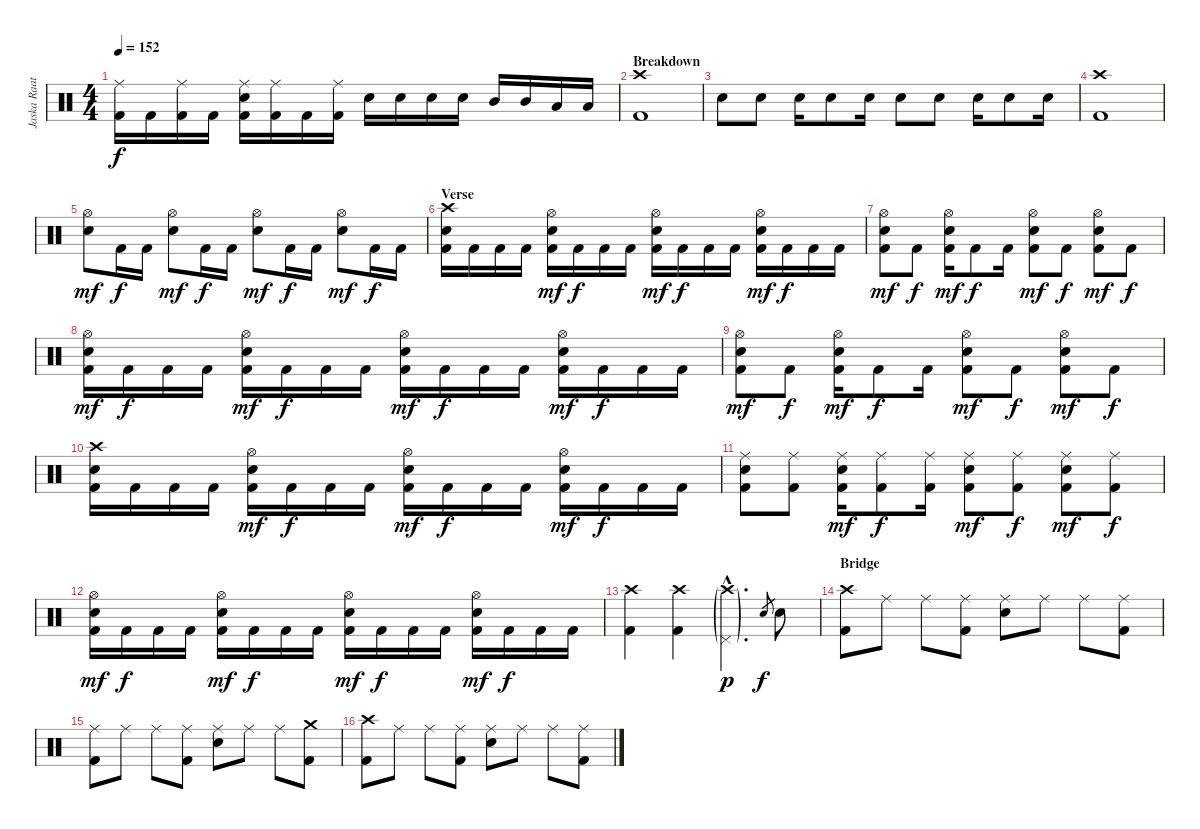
\track ("Jaska Raatikainen" "Jaska Raat") {instrument percussion}
\staff {score}
\articulation defaults
\ts (4 4)
\tempo 152
\clef neutral
\ks c
("Ride (middle)" "Kick (hit) 2").16{dy f} "Kick (hit) 2".16 ("Ride (middle)" "Kick (hit) 2").16 "Kick (hit) 2".16 ("Ride (middle)" "Electric Snare (hit)" "Kick (hit) 2").16 ("Ride (middle)" "Kick (hit) 2").16 "Kick (hit) 2".16 ("Ride (middle)" "Kick (hit) 2").16 "Electric Snare (hit)".16 "Electric Snare (hit)".16 "Electric Snare (hit)".16 "Electric Snare (hit)".16 "Mid Tom (hit)".16 "Mid Tom (hit)".16 "Low Tom (hit)".16 "Low Tom (hit)".16 |
\section ("" "Breakdown")
("Crash high (hit)" "Kick (hit) 2").1 |
"Electric Snare (hit)".8 "Electric Snare (hit)".8 "Electric Snare (hit)".16 "Electric Snare (hit)".8 "Electric Snare (hit)".16 "Electric Snare (hit)".8 "Electric Snare (hit)".8 "Electric Snare (hit)".16 "Electric Snare (hit)".8 "Electric Snare (hit)".16 |
("Crash high (hit)" "Kick (hit) 2").1 |
("Hi-Hat (open)" "Electric Snare (hit)").8{dy mf} "Kick (hit) 2".16{dy f} "Kick (hit) 2".16 ("Hi-Hat (open)" "Electric Snare (hit)").8{dy mf} "Kick (hit) 2".16{dy f} "Kick (hit) 2".16 ("Hi-Hat (open)" "Electric Snare (hit)").8{dy mf} "Kick (hit) 2".16{dy f} "Kick (hit) 2".16 ("Hi-Hat (open)" "Electric Snare (hit)").8{dy mf} "Kick (hit) 2".16{dy f} "Kick (hit) 2".16 |
\section ("" "Verse")
("Crash high (hit)" "Electric Snare (hit)" "Kick (hit) 2").16 "Kick (hit) 2".16 "Kick (hit) 2".16 "Kick (hit) 2".16 ("Hi-Hat (open)" "Electric Snare (hit)" "Kick (hit) 2").16{dy mf} "Kick (hit) 2".16{dy f} "Kick (hit) 2".16 "Kick (hit) 2".16 ("Hi-Hat (open)" "Electric Snare (hit)" "Kick (hit) 2").16{dy mf} "Kick (hit) 2".16{dy f} "Kick (hit) 2".16 "Kick (hit) 2".16 ("Hi-Hat (open)" "Electric Snare (hit)" "Kick (hit) 2").16{dy mf} "Kick (hit) 2".16{dy f} "Kick (hit) 2".16 "Kick (hit) 2".16 |
("Hi-Hat (open)" "Electric Snare (hit)" "Kick (hit) 2").8{dy mf} "Kick (hit) 2".8{dy f} ("Hi-Hat (open)" "Electric Snare (hit)" "Kick (hit) 2").16{dy mf} "Kick (hit) 2".8{dy f} "Kick (hit) 2".16 ("Hi-Hat (open)" "Electric Snare (hit)" "Kick (hit) 2").8{dy mf} "Kick (hit) 2".8{dy f} ("Hi-Hat (open)" "Electric Snare (hit)" "Kick (hit) 2").8{dy mf} "Kick (hit) 2".8{dy f} |
("Hi-Hat (open)" "Electric Snare (hit)" "Kick (hit) 2").16{dy mf} "Kick (hit) 2".16{dy f} "Kick (hit) 2".16 "Kick (hit) 2".16 ("Hi-Hat (open)" "Electric Snare (hit)" "Kick (hit) 2").16{dy mf} "Kick (hit) 2".16{dy f} "Kick (hit) 2".16 "Kick (hit) 2".16 ("Hi-Hat (open)" "Electric Snare (hit)" "Kick (hit) 2").16{dy mf} "Kick (hit) 2".16{dy f} "Kick (hit) 2".16 "Kick (hit) 2".16 ("Hi-Hat (open)" "Electric Snare (hit)" "Kick (hit) 2").16{dy mf} "Kick (hit) 2".16{dy f} "Kick (hit) 2".16 "Kick (hit) 2".16 |
("Hi-Hat (open)" "Electric Snare (hit)" "Kick (hit) 2").8{dy mf} "Kick (hit) 2".8{dy f} ("Hi-Hat (open)" "Electric Snare (hit)" "Kick (hit) 2").16{dy mf} "Kick (hit) 2".8{dy f} "Kick (hit) 2".16 ("Hi-Hat (open)" "Electric Snare (hit)" "Kick (hit) 2").8{dy mf} "Kick (hit) 2".8{dy f} ("Hi-Hat (open)" "Electric Snare (hit)" "Kick (hit) 2").8{dy mf} "Kick (hit) 2".8{dy f} |
("Crash high (hit)" "Electric Snare (hit)" "Kick (hit) 2").16 "Kick (hit) 2".16 "Kick (hit) 2".16 "Kick (hit) 2".16 ("Hi-Hat (open)" "Electric Snare (hit)" "Kick (hit) 2").16{dy mf} "Kick (hit) 2".16{dy f} "Kick (hit) 2".16 "Kick (hit) 2".16 ("Hi-Hat (open)" "Electric Snare (hit)" "Kick (hit) 2").16{dy mf} "Kick (hit) 2".16{dy f} "Kick (hit) 2".16 "Kick (hit) 2".16 ("Hi-Hat (open)" "Electric Snare (hit)" "Kick (hit) 2").16{dy mf} "Kick (hit) 2".16{dy f} "Kick (hit) 2".16 "Kick (hit) 2".16 |
("Ride (middle)" "Electric Snare (hit)" "Kick (hit) 2").8 ("Ride (middle)" "Kick (hit) 2").8 ("Ride (middle)" "Electric Snare (hit)" "Kick (hit) 2").16{dy mf} ("Ride (middle)" "Kick (hit) 2").8{dy f} ("Ride (middle)" "Kick (hit) 2").16 ("Ride (middle)" "Electric Snare (hit)" "Kick (hit) 2").8{dy mf} ("Ride (middle)" "Kick (hit) 2").8{dy f} ("Ride (middle)" "Electric Snare (hit)" "Kick (hit) 2").8{dy mf} ("Ride (middle)" "Kick (hit) 2").8{dy f} |
("Hi-Hat (open)" "Electric Snare (hit)" "Kick (hit) 2").16{dy mf} "Kick (hit) 2".16{dy f} "Kick (hit) 2".16 "Kick (hit) 2".16 ("Hi-Hat (open)" "Electric Snare (hit)" "Kick (hit) 2").16{dy mf} "Kick (hit) 2".16{dy f} "Kick (hit) 2".16 "Kick (hit) 2".16 ("Hi-Hat (open)" "Electric Snare (hit)" "Kick (hit) 2").16{dy mf} "Kick (hit) 2".16{dy f} "Kick (hit) 2".16 "Kick (hit) 2".16 ("Hi-Hat (open)" "Electric Snare (hit)" "Kick (hit) 2").16{dy mf} "Kick (hit) 2".16{dy f} "Kick (hit) 2".16 "Kick (hit) 2".16 |
("Crash high (hit)" "Kick (hit) 2").4 ("Crash high (hit)" "Kick (hit) 2").4 ("Crash high (hit)"{g hac} "Pedal Hi-Hat (hit)"{g hac}).4{d dy p} "Electric Snare (hit)".8{gr dy f} "Electric Snare (hit)".8 |
\section ("" "Bridge")
("Crash high (hit)" "Kick (hit) 2").8 "Ride (middle)".8 "Ride (middle)".8 ("Ride (middle)" "Kick (hit) 2").8 ("Ride (middle)" "Electric Snare (hit)").8 "Ride (middle)".8 "Ride (middle)".8 ("Ride (middle)" "Kick (hit) 2").8 |
("Ride (middle)" "Kick (hit) 2").8 "Ride (middle)".8 "Ride (middle)".8 ("Ride (middle)" "Kick (hit) 2").8 ("Ride (middle)" "Electric Snare (hit)").8 "Ride (middle)".8 "Ride (middle)".8 ("Crash medium (hit)" "Kick (hit) 2").8 |
("Crash high (hit)" "Kick (hit) 2").8 "Ride (middle)".8 "Ride (middle)".8 ("Ride (middle)" "Kick (hit) 2").8 ("Ride (middle)" "Electric Snare (hit)").8 "Ride (middle)".8 "Ride (middle)".8 ("Ride (middle)" "Kick (hit) 2").8
